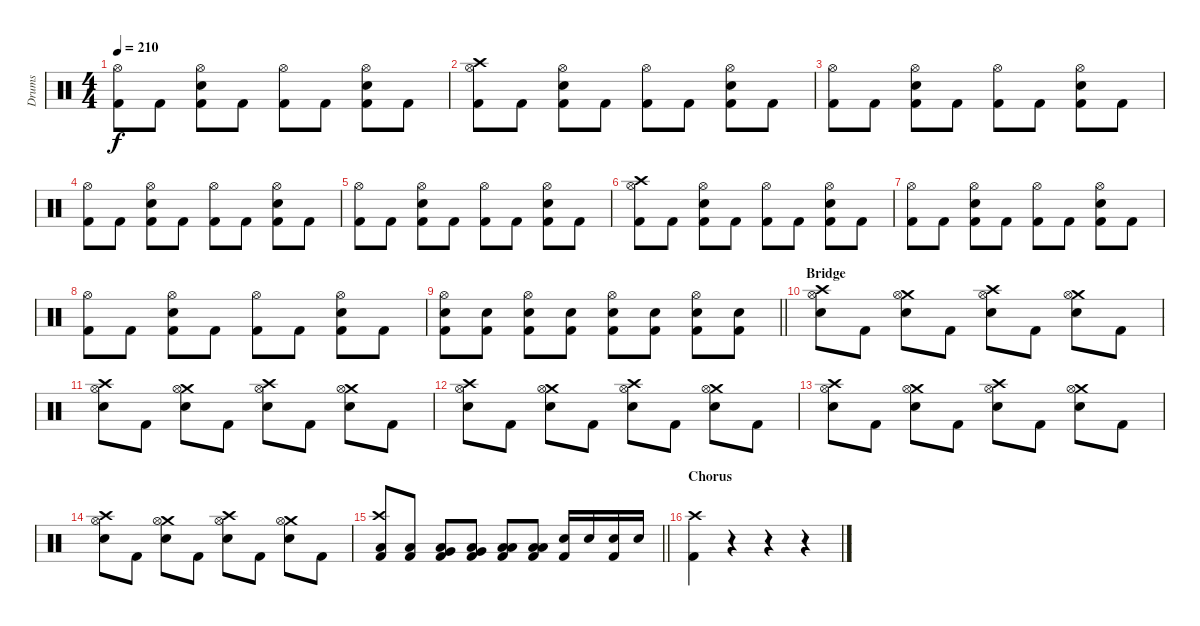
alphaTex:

\track ("Drums" "Drums") {instrument percussion}
\staff {score}
\articulation defaults
\ts (4 4)
\tempo 210
\clef neutral
\ks c
("Hi-Hat (open)" "Kick (hit) 2").8{dy f} "Kick (hit) 2".8 ("Hi-Hat (open)" "Snare (hit) 2" "Kick (hit) 2").8 "Kick (hit) 2".8 ("Hi-Hat (open)" "Kick (hit) 2").8 "Kick (hit) 2".8 ("Hi-Hat (open)" "Snare (hit) 2" "Kick (hit) 2").8 "Kick (hit) 2".8 |
("Crash high (hit)" "Hi-Hat (open)" "Kick (hit) 2").8 "Kick (hit) 2".8 ("Hi-Hat (open)" "Snare (hit) 2" "Kick (hit) 2").8 "Kick (hit) 2".8 ("Hi-Hat (open)" "Kick (hit) 2").8 "Kick (hit) 2".8 ("Hi-Hat (open)" "Snare (hit) 2" "Kick (hit) 2").8 "Kick (hit) 2".8 |
("Hi-Hat (open)" "Kick (hit) 2").8 "Kick (hit) 2".8 ("Hi-Hat (open)" "Snare (hit) 2" "Kick (hit) 2").8 "Kick (hit) 2".8 ("Hi-Hat (open)" "Kick (hit) 2").8 "Kick (hit) 2".8 ("Hi-Hat (open)" "Snare (hit) 2" "Kick (hit) 2").8 "Kick (hit) 2".8 |
("Hi-Hat (open)" "Kick (hit) 2").8 "Kick (hit) 2".8 ("Hi-Hat (open)" "Snare (hit) 2" "Kick (hit) 2").8 "Kick (hit) 2".8 ("Hi-Hat (open)" "Kick (hit) 2").8 "Kick (hit) 2".8 ("Hi-Hat (open)" "Snare (hit) 2" "Kick (hit) 2").8 "Kick (hit) 2".8 |
("Hi-Hat (open)" "Kick (hit) 2").8 "Kick (hit) 2".8 ("Hi-Hat (open)" "Snare (hit) 2" "Kick (hit) 2").8 "Kick (hit) 2".8 ("Hi-Hat (open)" "Kick (hit) 2").8 "Kick (hit) 2".8 ("Hi-Hat (open)" "Snare (hit) 2" "Kick (hit) 2").8 "Kick (hit) 2".8 |
("Crash high (hit)" "Hi-Hat (open)" "Kick (hit) 2").8 "Kick (hit) 2".8 ("Hi-Hat (open)" "Snare (hit) 2" "Kick (hit) 2").8 "Kick (hit) 2".8 ("Hi-Hat (open)" "Kick (hit) 2").8 "Kick (hit) 2".8 ("Hi-Hat (open)" "Snare (hit) 2" "Kick (hit) 2").8 "Kick (hit) 2".8 |
("Hi-Hat (open)" "Kick (hit) 2").8 "Kick (hit) 2".8 ("Hi-Hat (open)" "Snare (hit) 2" "Kick (hit) 2").8 "Kick (hit) 2".8 ("Hi-Hat (open)" "Kick (hit) 2").8 "Kick (hit) 2".8 ("Hi-Hat (open)" "Snare (hit) 2" "Kick (hit) 2").8 "Kick (hit) 2".8 |
("Hi-Hat (open)" "Kick (hit) 2").8 "Kick (hit) 2".8 ("Hi-Hat (open)" "Snare (hit) 2" "Kick (hit) 2").8 "Kick (hit) 2".8 ("Hi-Hat (open)" "Kick (hit) 2").8 "Kick (hit) 2".8 ("Hi-Hat (open)" "Snare (hit) 2" "Kick (hit) 2").8 "Kick (hit) 2".8 |
\barLineRight lightlight
("Hi-Hat (open)" "Snare (hit) 2" "Kick (hit) 2").8 ("Snare (hit) 2" "Kick (hit) 2").8 ("Hi-Hat (open)" "Snare (hit) 2" "Kick (hit) 2").8 ("Snare (hit) 2" "Kick (hit) 2").8 ("Hi-Hat (open)" "Snare (hit) 2" "Kick (hit) 2").8 ("Snare (hit) 2" "Kick (hit) 2").8 ("Hi-Hat (open)" "Snare (hit) 2" "Kick (hit) 2").8 ("Snare (hit) 2" "Kick (hit) 2").8 |
\section ("" "Bridge")
("Crash high (hit)" "Hi-Hat (open)" "Snare (hit) 2").8 "Kick (hit) 2".8 ("Crash medium (hit)" "Hi-Hat (open)" "Snare (hit) 2").8 "Kick (hit) 2".8 ("Crash high (hit)" "Hi-Hat (open)" "Snare (hit) 2").8 "Kick (hit) 2".8 ("Crash medium (hit)" "Hi-Hat (open)" "Snare (hit) 2").8 "Kick (hit) 2".8 |
("Crash high (hit)" "Hi-Hat (open)" "Snare (hit) 2").8 "Kick (hit) 2".8 ("Crash medium (hit)" "Hi-Hat (open)" "Snare (hit) 2").8 "Kick (hit) 2".8 ("Crash high (hit)" "Hi-Hat (open)" "Snare (hit) 2").8 "Kick (hit) 2".8 ("Crash medium (hit)" "Hi-Hat (open)" "Snare (hit) 2").8 "Kick (hit) 2".8 |
("Crash high (hit)" "Hi-Hat (open)" "Snare (hit) 2").8 "Kick (hit) 2".8 ("Crash medium (hit)" "Hi-Hat (open)" "Snare (hit) 2").8 "Kick (hit) 2".8 ("Crash high (hit)" "Hi-Hat (open)" "Snare (hit) 2").8 "Kick (hit) 2".8 ("Crash medium (hit)" "Hi-Hat (open)" "Snare (hit) 2").8 "Kick (hit) 2".8 |
("Crash high (hit)" "Hi-Hat (open)" "Snare (hit) 2").8 "Kick (hit) 2".8 ("Crash medium (hit)" "Hi-Hat (open)" "Snare (hit) 2").8 "Kick (hit) 2".8 ("Crash high (hit)" "Hi-Hat (open)" "Snare (hit) 2").8 "Kick (hit) 2".8 ("Crash medium (hit)" "Hi-Hat (open)" "Snare (hit) 2").8 "Kick (hit) 2".8 |
("Crash high (hit)" "Hi-Hat (open)" "Snare (hit) 2").8 "Kick (hit) 2".8 ("Crash medium (hit)" "Hi-Hat (open)" "Snare (hit) 2").8 "Kick (hit) 2".8 ("Crash high (hit)" "Hi-Hat (open)" "Snare (hit) 2").8 "Kick (hit) 2".8 ("Crash medium (hit)" "Hi-Hat (open)" "Snare (hit) 2").8 "Kick (hit) 2".8 |
\barLineRight lightlight
("Crash high (hit)" "Low Floor Tom (hit)" "Kick (hit) 2").8 ("Low Floor Tom (hit)" "Kick (hit) 2").8 ("Very Low Tom (hit)" "Low Floor Tom (hit)" "Kick (hit) 2").8 ("Very Low Tom (hit)" "Low Floor Tom (hit)" "Kick (hit) 2").8 ("Low Tom (hit)" "Low Floor Tom (hit)" "Kick (hit) 2").8 ("Low Tom (hit)" "Low Floor Tom (hit)" "Kick (hit) 2").8 ("Snare (hit) 2" "Kick (hit) 2").16 "Snare (hit) 2".16 ("Snare (hit) 2" "Kick (hit) 2").16 "Snare (hit) 2".16 |
\section ("" "Chorus")
("Crash high (hit)" "Kick (hit) 2").4 r.4 r.4 r.4
